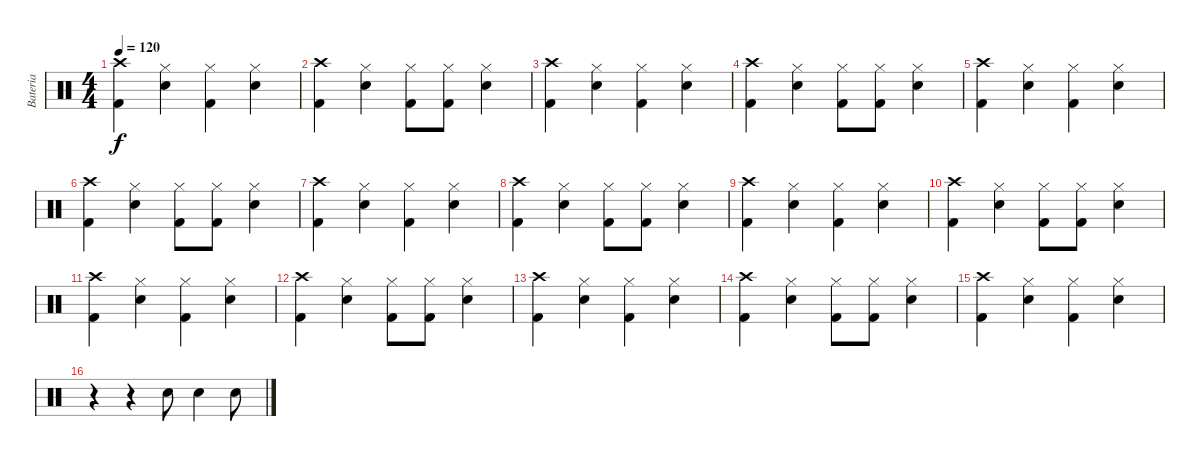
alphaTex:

\track ("Bateria" "Bateria") {instrument percussion}
\staff {score}
\articulation defaults
\ts (4 4)
\tempo 120
\clef neutral
\ks c
("Kick (hit) 2" "Crash high (hit)").4{dy f} ("Snare (hit) 2" "Hi-Hat (closed)").4 ("Kick (hit) 2" "Hi-Hat (closed)").4 ("Snare (hit) 2" "Hi-Hat (closed)").4 |
("Kick (hit) 2" "Crash high (hit)").4 ("Snare (hit) 2" "Hi-Hat (closed)").4 ("Kick (hit) 2" "Hi-Hat (closed)").8 ("Kick (hit) 2" "Hi-Hat (closed)").8 ("Snare (hit) 2" "Hi-Hat (closed)").4 |
("Kick (hit) 2" "Crash high (hit)").4 ("Snare (hit) 2" "Hi-Hat (closed)").4 ("Kick (hit) 2" "Hi-Hat (closed)").4 ("Snare (hit) 2" "Hi-Hat (closed)").4 |
("Kick (hit) 2" "Crash high (hit)").4 ("Snare (hit) 2" "Hi-Hat (closed)").4 ("Kick (hit) 2" "Hi-Hat (closed)").8 ("Kick (hit) 2" "Hi-Hat (closed)").8 ("Snare (hit) 2" "Hi-Hat (closed)").4 |
("Kick (hit) 2" "Crash high (hit)").4 ("Snare (hit) 2" "Hi-Hat (closed)").4 ("Kick (hit) 2" "Hi-Hat (closed)").4 ("Snare (hit) 2" "Hi-Hat (closed)").4 |
("Kick (hit) 2" "Crash high (hit)").4 ("Snare (hit) 2" "Hi-Hat (closed)").4 ("Kick (hit) 2" "Hi-Hat (closed)").8 ("Kick (hit) 2" "Hi-Hat (closed)").8 ("Snare (hit) 2" "Hi-Hat (closed)").4 |
("Kick (hit) 2" "Crash high (hit)").4 ("Snare (hit) 2" "Hi-Hat (closed)").4 ("Kick (hit) 2" "Hi-Hat (closed)").4 ("Snare (hit) 2" "Hi-Hat (closed)").4 |
("Kick (hit) 2" "Crash high (hit)").4 ("Snare (hit) 2" "Hi-Hat (closed)").4 ("Kick (hit) 2" "Hi-Hat (closed)").8 ("Kick (hit) 2" "Hi-Hat (closed)").8 ("Snare (hit) 2" "Hi-Hat (closed)").4 |
("Kick (hit) 2" "Crash high (hit)").4 ("Snare (hit) 2" "Hi-Hat (closed)").4 ("Kick (hit) 2" "Hi-Hat (closed)").4 ("Snare (hit) 2" "Hi-Hat (closed)").4 |
("Kick (hit) 2" "Crash high (hit)").4 ("Snare (hit) 2" "Hi-Hat (closed)").4 ("Kick (hit) 2" "Hi-Hat (closed)").8 ("Kick (hit) 2" "Hi-Hat (closed)").8 ("Snare (hit) 2" "Hi-Hat (closed)").4 |
("Kick (hit) 2" "Crash high (hit)").4 ("Snare (hit) 2" "Hi-Hat (closed)").4 ("Kick (hit) 2" "Hi-Hat (closed)").4 ("Snare (hit) 2" "Hi-Hat (closed)").4 |
("Kick (hit) 2" "Crash high (hit)").4 ("Snare (hit) 2" "Hi-Hat (closed)").4 ("Kick (hit) 2" "Hi-Hat (closed)").8 ("Kick (hit) 2" "Hi-Hat (closed)").8 ("Snare (hit) 2" "Hi-Hat (closed)").4 |
("Kick (hit) 2" "Crash high (hit)").4 ("Snare (hit) 2" "Hi-Hat (closed)").4 ("Kick (hit) 2" "Hi-Hat (closed)").4 ("Snare (hit) 2" "Hi-Hat (closed)").4 |
("Kick (hit) 2" "Crash high (hit)").4 ("Snare (hit) 2" "Hi-Hat (closed)").4 ("Kick (hit) 2" "Hi-Hat (closed)").8 ("Kick (hit) 2" "Hi-Hat (closed)").8 ("Snare (hit) 2" "Hi-Hat (closed)").4 |
("Kick (hit) 2" "Crash high (hit)").4 ("Snare (hit) 2" "Hi-Hat (closed)").4 ("Kick (hit) 2" "Hi-Hat (closed)").4 ("Snare (hit) 2" "Hi-Hat (closed)").4 |
r.4 r.4 "Snare (hit) 2".8 "Snare (hit) 2".4 "Snare (hit) 2".8
